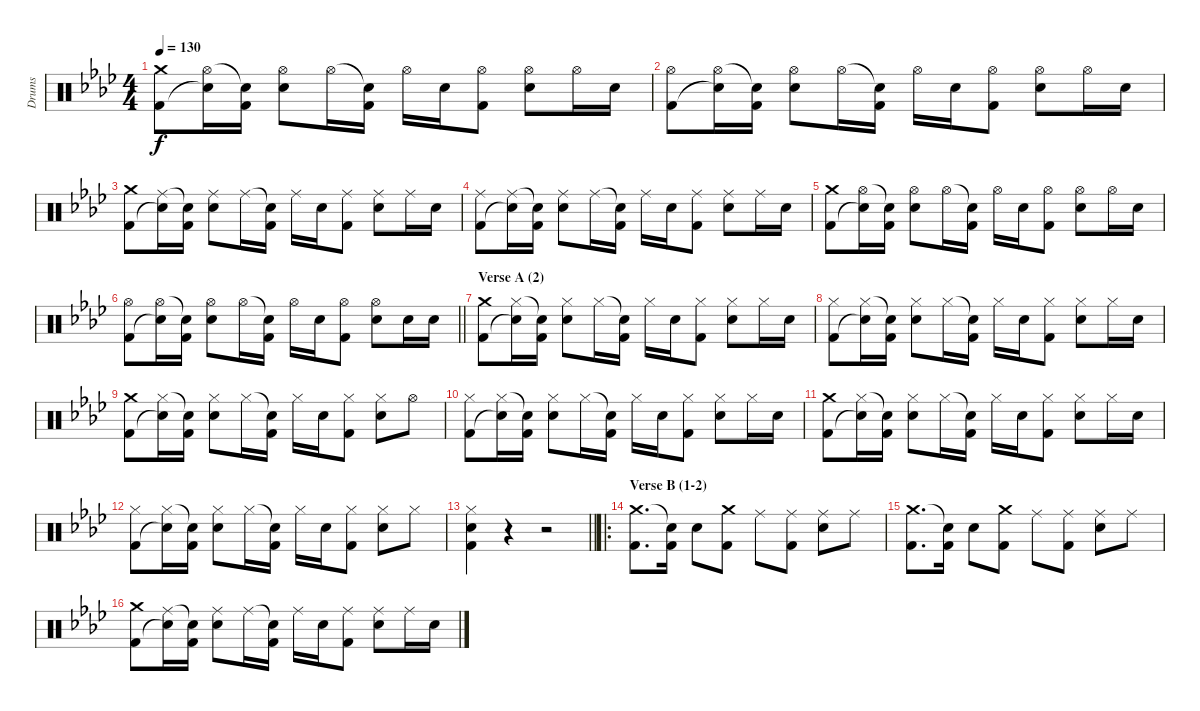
\track ("Drums" "Drums") {instrument percussion}
\staff {score}
\articulation defaults
\ts (4 4)
\tempo 130
\clef neutral
\ks fminor
("Crash medium (hit)" "Kick (hit) 2").8{dy f} ("Hi-Hat (open)" "Snare (hit)"{t}).16 ("Snare (hit)"{t} "Kick (hit) 2").16 ("Hi-Hat (open)" "Electric Snare (hit)").8 "Hi-Hat (open)".16 ("Snare (hit)"{t} "Kick (hit) 2").16 "Hi-Hat (open)".16 "Electric Snare (hit)".16 ("Hi-Hat (open)" "Kick (hit) 2").8 ("Hi-Hat (open)" "Electric Snare (hit)").8 "Hi-Hat (open)".16 "Electric Snare (hit)".16 |
("Hi-Hat (open)" "Kick (hit) 2").8 ("Hi-Hat (open)" "Snare (hit)"{t}).16 ("Snare (hit)"{t} "Kick (hit) 2").16 ("Hi-Hat (open)" "Electric Snare (hit)").8 "Hi-Hat (open)".16 ("Snare (hit)"{t} "Kick (hit) 2").16 "Hi-Hat (open)".16 "Electric Snare (hit)".16 ("Hi-Hat (open)" "Kick (hit) 2").8 ("Hi-Hat (open)" "Electric Snare (hit)").8 "Hi-Hat (open)".16 "Electric Snare (hit)".16 |
("Crash medium (hit)" "Kick (hit) 2").8 ("Ride (middle)" "Snare (hit)"{t}).16 ("Snare (hit)"{t} "Kick (hit) 2").16 ("Ride (middle)" "Electric Snare (hit)").8 "Ride (middle)".16 ("Snare (hit)"{t} "Kick (hit) 2").16 "Ride (middle)".16 "Electric Snare (hit)".16 ("Ride (middle)" "Kick (hit) 2").8 ("Ride (middle)" "Electric Snare (hit)").8 "Ride (middle)".16 "Electric Snare (hit)".16 |
("Ride (middle)" "Kick (hit) 2").8 ("Ride (middle)" "Snare (hit)"{t}).16 ("Snare (hit)"{t} "Kick (hit) 2").16 ("Ride (middle)" "Electric Snare (hit)").8 "Ride (middle)".16 ("Snare (hit)"{t} "Kick (hit) 2").16 "Ride (middle)".16 "Electric Snare (hit)".16 ("Ride (middle)" "Kick (hit) 2").8 ("Ride (middle)" "Electric Snare (hit)").8 "Ride (middle)".16 "Electric Snare (hit)".16 |
("Crash medium (hit)" "Kick (hit) 2").8 ("Hi-Hat (open)" "Snare (hit)"{t}).16 ("Snare (hit)"{t} "Kick (hit) 2").16 ("Hi-Hat (open)" "Electric Snare (hit)").8 "Hi-Hat (open)".16 ("Snare (hit)"{t} "Kick (hit) 2").16 "Hi-Hat (open)".16 "Electric Snare (hit)".16 ("Hi-Hat (open)" "Kick (hit) 2").8 ("Hi-Hat (open)" "Electric Snare (hit)").8 "Hi-Hat (open)".16 "Electric Snare (hit)".16 |
\barLineRight lightlight
("Hi-Hat (open)" "Kick (hit) 2").8 ("Hi-Hat (open)" "Snare (hit)"{t}).16 ("Snare (hit)"{t} "Kick (hit) 2").16 ("Hi-Hat (open)" "Electric Snare (hit)").8 "Hi-Hat (open)".16 ("Snare (hit)"{t} "Kick (hit) 2").16 "Hi-Hat (open)".16 "Electric Snare (hit)".16 ("Hi-Hat (open)" "Kick (hit) 2").8 ("Hi-Hat (open)" "Electric Snare (hit)").8 "Electric Snare (hit)".16 "Electric Snare (hit)".16 |
\section ("" "Verse A (2)")
("Crash medium (hit)" "Kick (hit) 2").8 ("Hi-Hat (closed)" "Snare (hit)"{t}).16 ("Snare (hit)"{t} "Kick (hit) 2").16 ("Hi-Hat (closed)" "Electric Snare (hit)").8 "Hi-Hat (closed)".16 ("Snare (hit)"{t} "Kick (hit) 2").16 "Hi-Hat (closed)".16 "Electric Snare (hit)".16 ("Hi-Hat (closed)" "Kick (hit) 2").8 ("Hi-Hat (closed)" "Electric Snare (hit)").8 "Hi-Hat (closed)".16 "Electric Snare (hit)".16 |
("Hi-Hat (closed)" "Kick (hit) 2").8 ("Hi-Hat (closed)" "Snare (hit)"{t}).16 ("Snare (hit)"{t} "Kick (hit) 2").16 ("Hi-Hat (closed)" "Electric Snare (hit)").8 "Hi-Hat (closed)".16 ("Snare (hit)"{t} "Kick (hit) 2").16 "Hi-Hat (closed)".16 "Electric Snare (hit)".16 ("Hi-Hat (closed)" "Kick (hit) 2").8 ("Hi-Hat (closed)" "Electric Snare (hit)").8 "Hi-Hat (closed)".16 "Electric Snare (hit)".16 |
("Crash medium (hit)" "Kick (hit) 2").8 ("Hi-Hat (closed)" "Snare (hit)"{t}).16 ("Snare (hit)"{t} "Kick (hit) 2").16 ("Hi-Hat (closed)" "Electric Snare (hit)").8 "Hi-Hat (closed)".16 ("Snare (hit)"{t} "Kick (hit) 2").16 "Hi-Hat (closed)".16 "Electric Snare (hit)".16 ("Hi-Hat (closed)" "Kick (hit) 2").8 ("Hi-Hat (closed)" "Electric Snare (hit)").8 "Hi-Hat (open)".8 |
("Hi-Hat (closed)" "Kick (hit) 2").8 ("Hi-Hat (closed)" "Snare (hit)"{t}).16 ("Snare (hit)"{t} "Kick (hit) 2").16 ("Hi-Hat (closed)" "Electric Snare (hit)").8 "Hi-Hat (closed)".16 ("Snare (hit)"{t} "Kick (hit) 2").16 "Hi-Hat (closed)".16 "Electric Snare (hit)".16 ("Hi-Hat (closed)" "Kick (hit) 2").8 ("Hi-Hat (closed)" "Electric Snare (hit)").8 "Hi-Hat (closed)".16 "Electric Snare (hit)".16 |
("Crash medium (hit)" "Kick (hit) 2").8 ("Hi-Hat (closed)" "Snare (hit)"{t}).16 ("Snare (hit)"{t} "Kick (hit) 2").16 ("Hi-Hat (closed)" "Electric Snare (hit)").8 "Hi-Hat (closed)".16 ("Snare (hit)"{t} "Kick (hit) 2").16 "Hi-Hat (closed)".16 "Electric Snare (hit)".16 ("Hi-Hat (closed)" "Kick (hit) 2").8 ("Hi-Hat (closed)" "Electric Snare (hit)").8 "Hi-Hat (closed)".16 "Electric Snare (hit)".16 |
("Hi-Hat (closed)" "Kick (hit) 2").8 ("Hi-Hat (closed)" "Snare (hit)"{t}).16 ("Snare (hit)"{t} "Kick (hit) 2").16 ("Hi-Hat (closed)" "Electric Snare (hit)").8 "Hi-Hat (closed)".16 ("Snare (hit)"{t} "Kick (hit) 2").16 "Hi-Hat (closed)".16 "Electric Snare (hit)".16 ("Hi-Hat (closed)" "Kick (hit) 2").8 ("Hi-Hat (closed)" "Electric Snare (hit)").8 "Hi-Hat (closed)".8 |
\barLineRight lightlight
("Hi-Hat (closed)" "Electric Snare (hit)" "Kick (hit) 2").4 r.4 r.2 |
\ro
\section ("" "Verse B (1-2)")
("Crash medium (hit)" "Kick (hit) 2").8{d} ("Snare (hit)"{t} "Kick (hit) 2").16 "Electric Snare (hit)".8 ("Crash medium (hit)" "Kick (hit) 2").8 "Ride (middle)".8 ("Ride (middle)" "Kick (hit) 2").8 ("Ride (middle)" "Electric Snare (hit)").8 "Ride (middle)".8 |
("Crash medium (hit)" "Kick (hit) 2").8{d} ("Snare (hit)"{t} "Kick (hit) 2").16 "Electric Snare (hit)".8 ("Crash medium (hit)" "Kick (hit) 2").8 "Ride (middle)".8 ("Ride (middle)" "Kick (hit) 2").8 ("Ride (middle)" "Electric Snare (hit)").8 "Ride (middle)".8 |
("Crash medium (hit)" "Kick (hit) 2").8 ("Ride (middle)" "Snare (hit)"{t}).16 ("Snare (hit)"{t} "Kick (hit) 2").16 ("Ride (middle)" "Electric Snare (hit)").8 "Ride (middle)".16 ("Snare (hit)"{t} "Kick (hit) 2").16 "Ride (middle)".16 "Electric Snare (hit)".16 ("Ride (middle)" "Kick (hit) 2").8 ("Ride (middle)" "Electric Snare (hit)").8 "Ride (middle)".16 "Electric Snare (hit)".16
